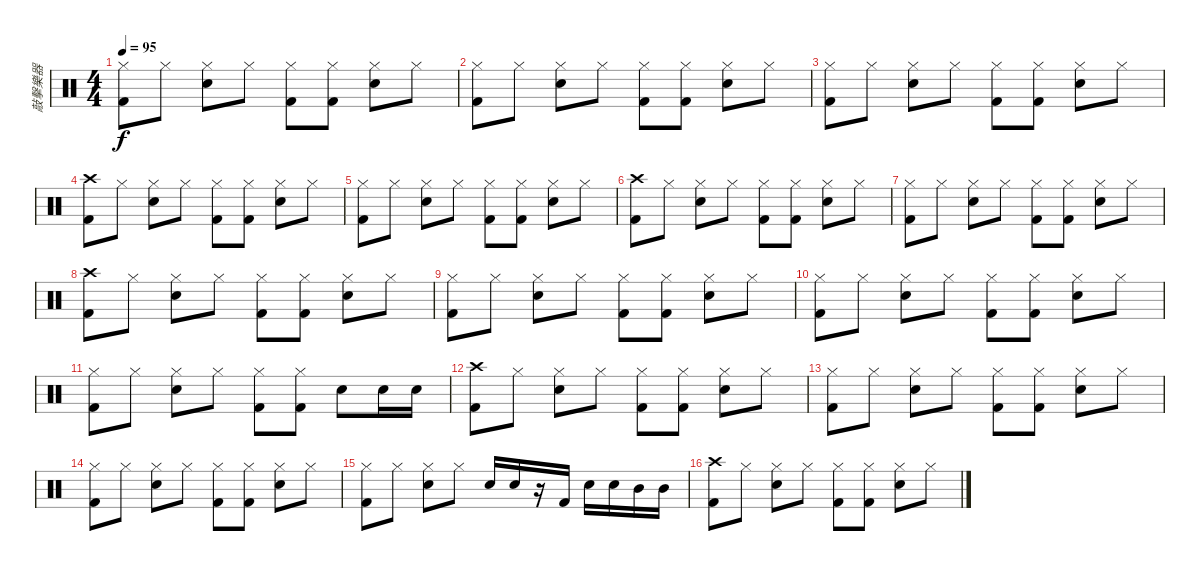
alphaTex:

\track ("敲擊樂器" "敲擊樂器") {instrument percussion}
\staff {score}
\articulation defaults
\ts (4 4)
\tempo 95
\clef neutral
\ks c
("Hi-Hat (closed)" "Kick (hit) 2").8{dy f} "Hi-Hat (closed)".8 ("Hi-Hat (closed)" "Snare (hit) 2").8 "Hi-Hat (closed)".8 ("Hi-Hat (closed)" "Kick (hit) 2").8 ("Hi-Hat (closed)" "Kick (hit) 2").8 ("Hi-Hat (closed)" "Snare (hit) 2").8 "Hi-Hat (closed)".8 |
("Hi-Hat (closed)" "Kick (hit) 2").8 "Hi-Hat (closed)".8 ("Hi-Hat (closed)" "Snare (hit) 2").8 "Hi-Hat (closed)".8 ("Hi-Hat (closed)" "Kick (hit) 2").8 ("Hi-Hat (closed)" "Kick (hit) 2").8 ("Hi-Hat (closed)" "Snare (hit) 2").8 "Hi-Hat (closed)".8 |
("Hi-Hat (closed)" "Kick (hit) 2").8 "Hi-Hat (closed)".8 ("Hi-Hat (closed)" "Snare (hit) 2").8 "Hi-Hat (closed)".8 ("Hi-Hat (closed)" "Kick (hit) 2").8 ("Hi-Hat (closed)" "Kick (hit) 2").8 ("Hi-Hat (closed)" "Snare (hit) 2").8 "Hi-Hat (closed)".8 |
("Crash high (hit)" "Kick (hit) 2").8 "Hi-Hat (closed)".8 ("Hi-Hat (closed)" "Snare (hit) 2").8 "Hi-Hat (closed)".8 ("Hi-Hat (closed)" "Kick (hit) 2").8 ("Hi-Hat (closed)" "Kick (hit) 2").8 ("Hi-Hat (closed)" "Snare (hit) 2").8 "Hi-Hat (closed)".8 |
("Hi-Hat (closed)" "Kick (hit) 2").8 "Hi-Hat (closed)".8 ("Hi-Hat (closed)" "Snare (hit) 2").8 "Hi-Hat (closed)".8 ("Hi-Hat (closed)" "Kick (hit) 2").8 ("Hi-Hat (closed)" "Kick (hit) 2").8 ("Hi-Hat (closed)" "Snare (hit) 2").8 "Hi-Hat (closed)".8 |
("Crash high (hit)" "Kick (hit) 2").8 "Hi-Hat (closed)".8 ("Hi-Hat (closed)" "Snare (hit) 2").8 "Hi-Hat (closed)".8 ("Hi-Hat (closed)" "Kick (hit) 2").8 ("Hi-Hat (closed)" "Kick (hit) 2").8 ("Hi-Hat (closed)" "Snare (hit) 2").8 "Hi-Hat (closed)".8 |
("Hi-Hat (closed)" "Kick (hit) 2").8 "Hi-Hat (closed)".8 ("Hi-Hat (closed)" "Snare (hit) 2").8 "Hi-Hat (closed)".8 ("Hi-Hat (closed)" "Kick (hit) 2").8 ("Hi-Hat (closed)" "Kick (hit) 2").8 ("Hi-Hat (closed)" "Snare (hit) 2").8 "Hi-Hat (closed)".8 |
("Crash high (hit)" "Kick (hit) 2").8 "Hi-Hat (closed)".8 ("Hi-Hat (closed)" "Snare (hit) 2").8 "Hi-Hat (closed)".8 ("Hi-Hat (closed)" "Kick (hit) 2").8 ("Hi-Hat (closed)" "Kick (hit) 2").8 ("Hi-Hat (closed)" "Snare (hit) 2").8 "Hi-Hat (closed)".8 |
("Hi-Hat (closed)" "Kick (hit) 2").8 "Hi-Hat (closed)".8 ("Hi-Hat (closed)" "Snare (hit) 2").8 "Hi-Hat (closed)".8 ("Hi-Hat (closed)" "Kick (hit) 2").8 ("Hi-Hat (closed)" "Kick (hit) 2").8 ("Hi-Hat (closed)" "Snare (hit) 2").8 "Hi-Hat (closed)".8 |
("Hi-Hat (closed)" "Kick (hit) 2").8 "Hi-Hat (closed)".8 ("Hi-Hat (closed)" "Snare (hit) 2").8 "Hi-Hat (closed)".8 ("Hi-Hat (closed)" "Kick (hit) 2").8 ("Hi-Hat (closed)" "Kick (hit) 2").8 ("Hi-Hat (closed)" "Snare (hit) 2").8 "Hi-Hat (closed)".8 |
("Hi-Hat (closed)" "Kick (hit) 2").8 "Hi-Hat (closed)".8 ("Hi-Hat (closed)" "Snare (hit) 2").8 "Hi-Hat (closed)".8 ("Hi-Hat (closed)" "Kick (hit) 2").8 ("Hi-Hat (closed)" "Kick (hit) 2").8 "Snare (hit) 2".8 "Snare (hit) 2".16 "Snare (hit) 2".16 |
("Crash high (hit)" "Kick (hit) 2").8 "Hi-Hat (closed)".8 ("Hi-Hat (closed)" "Snare (hit) 2").8 "Hi-Hat (closed)".8 ("Hi-Hat (closed)" "Kick (hit) 2").8 ("Hi-Hat (closed)" "Kick (hit) 2").8 ("Hi-Hat (closed)" "Snare (hit) 2").8 "Hi-Hat (closed)".8 |
("Hi-Hat (closed)" "Kick (hit) 2").8 "Hi-Hat (closed)".8 ("Hi-Hat (closed)" "Snare (hit) 2").8 "Hi-Hat (closed)".8 ("Hi-Hat (closed)" "Kick (hit) 2").8 ("Hi-Hat (closed)" "Kick (hit) 2").8 ("Hi-Hat (closed)" "Snare (hit) 2").8 "Hi-Hat (closed)".8 |
("Hi-Hat (closed)" "Kick (hit) 2").8 "Hi-Hat (closed)".8 ("Hi-Hat (closed)" "Snare (hit) 2").8 "Hi-Hat (closed)".8 ("Hi-Hat (closed)" "Kick (hit) 2").8 ("Hi-Hat (closed)" "Kick (hit) 2").8 ("Hi-Hat (closed)" "Snare (hit) 2").8 "Hi-Hat (closed)".8 |
("Hi-Hat (closed)" "Kick (hit) 2").8 "Hi-Hat (closed)".8 ("Hi-Hat (closed)" "Snare (hit) 2").8 "Hi-Hat (closed)".8 "Snare (hit) 2".16 "Snare (hit) 2".16 r.16 "Kick (hit) 2".16 "Snare (hit) 2".16 "Snare (hit) 2".16 "Mid Tom (hit)".16 "Mid Tom (hit)".16 |
("Crash high (hit)" "Kick (hit) 2").8 "Hi-Hat (closed)".8 ("Hi-Hat (closed)" "Snare (hit) 2").8 "Hi-Hat (closed)".8 ("Hi-Hat (closed)" "Kick (hit) 2").8 ("Hi-Hat (closed)" "Kick (hit) 2").8 ("Hi-Hat (closed)" "Snare (hit) 2").8 "Hi-Hat (closed)".8
